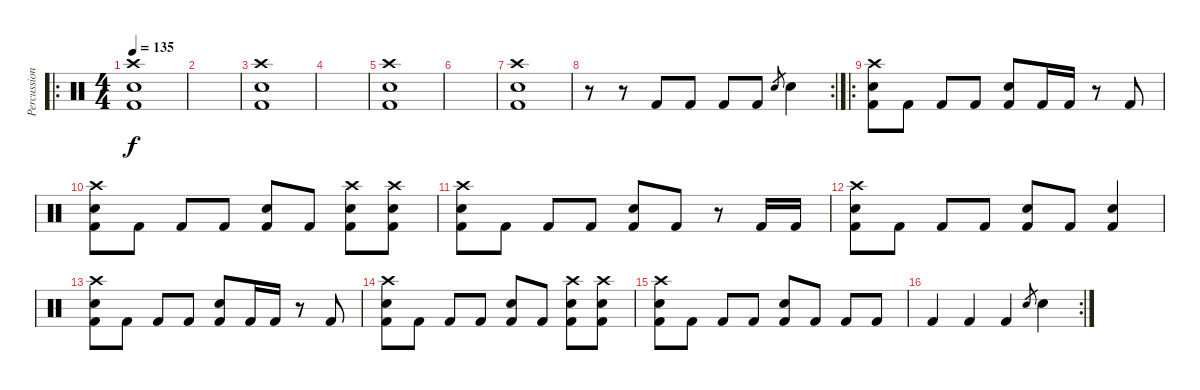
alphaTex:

\track ("Percussions" "Percussion") {instrument percussion}
\staff {score}
\articulation defaults
\ro
\ts (4 4)
\tempo 135
\clef neutral
\ks c
("Crash high (hit)" "Kick (hit) 2" "Electric Snare (hit)").1{dy f} |
|
("Crash high (hit)" "Electric Snare (hit)" "Kick (hit) 2").1 |
|
("Crash high (hit)" "Kick (hit) 2" "Electric Snare (hit)").1 |
|
("Crash high (hit)" "Electric Snare (hit)" "Kick (hit) 2").1 |
\rc 2
r.8 r.8 "Kick (hit) 2".8 "Kick (hit) 2".8 "Kick (hit) 2".8 "Kick (hit) 2".8 "Electric Snare (hit)".8{gr} "Electric Snare (hit)".4 |
\ro
("Crash high (hit)" "Kick (hit) 2" "Electric Snare (hit)").8 "Kick (hit) 2".8 "Kick (hit) 2".8 "Kick (hit) 2".8 ("Kick (hit) 2" "Electric Snare (hit)").8 "Kick (hit) 2".16 "Kick (hit) 2".16 r.8 "Kick (hit) 2".8 |
("Crash high (hit)" "Kick (hit) 2" "Electric Snare (hit)").8 "Kick (hit) 2".8 "Kick (hit) 2".8 "Kick (hit) 2".8 ("Kick (hit) 2" "Electric Snare (hit)").8 "Kick (hit) 2".8 ("Crash high (hit)" "Electric Snare (hit)" "Kick (hit) 2").8 ("Crash high (hit)" "Electric Snare (hit)" "Kick (hit) 2").8 |
("Crash high (hit)" "Kick (hit) 2" "Electric Snare (hit)").8 "Kick (hit) 2".8 "Kick (hit) 2".8 "Kick (hit) 2".8 ("Kick (hit) 2" "Electric Snare (hit)").8 "Kick (hit) 2".8 r.8 "Kick (hit) 2".16 "Kick (hit) 2".16 |
("Crash high (hit)" "Kick (hit) 2" "Electric Snare (hit)").8 "Kick (hit) 2".8 "Kick (hit) 2".8 "Kick (hit) 2".8 ("Kick (hit) 2" "Electric Snare (hit)").8 "Kick (hit) 2".8 ("Electric Snare (hit)" "Kick (hit) 2").4 |
("Crash high (hit)" "Kick (hit) 2" "Electric Snare (hit)").8 "Kick (hit) 2".8 "Kick (hit) 2".8 "Kick (hit) 2".8 ("Kick (hit) 2" "Electric Snare (hit)").8 "Kick (hit) 2".16 "Kick (hit) 2".16 r.8 "Kick (hit) 2".8 |
("Crash high (hit)" "Kick (hit) 2" "Electric Snare (hit)").8 "Kick (hit) 2".8 "Kick (hit) 2".8 "Kick (hit) 2".8 ("Kick (hit) 2" "Electric Snare (hit)").8 "Kick (hit) 2".8 ("Electric Snare (hit)" "Crash high (hit)" "Kick (hit) 2").8 ("Electric Snare (hit)" "Crash high (hit)" "Kick (hit) 2").8 |
("Crash high (hit)" "Kick (hit) 2" "Electric Snare (hit)").8 "Kick (hit) 2".8 "Kick (hit) 2".8 "Kick (hit) 2".8 ("Kick (hit) 2" "Electric Snare (hit)").8 "Kick (hit) 2".8 "Kick (hit) 2".8 "Kick (hit) 2".8 |
\rc 2 "Kick (hit) 2".4 "Kick (hit) 2".4 "Kick (hit) 2".4 "Electric Snare (hit)".8{gr} "Electric Snare (hit)".4
